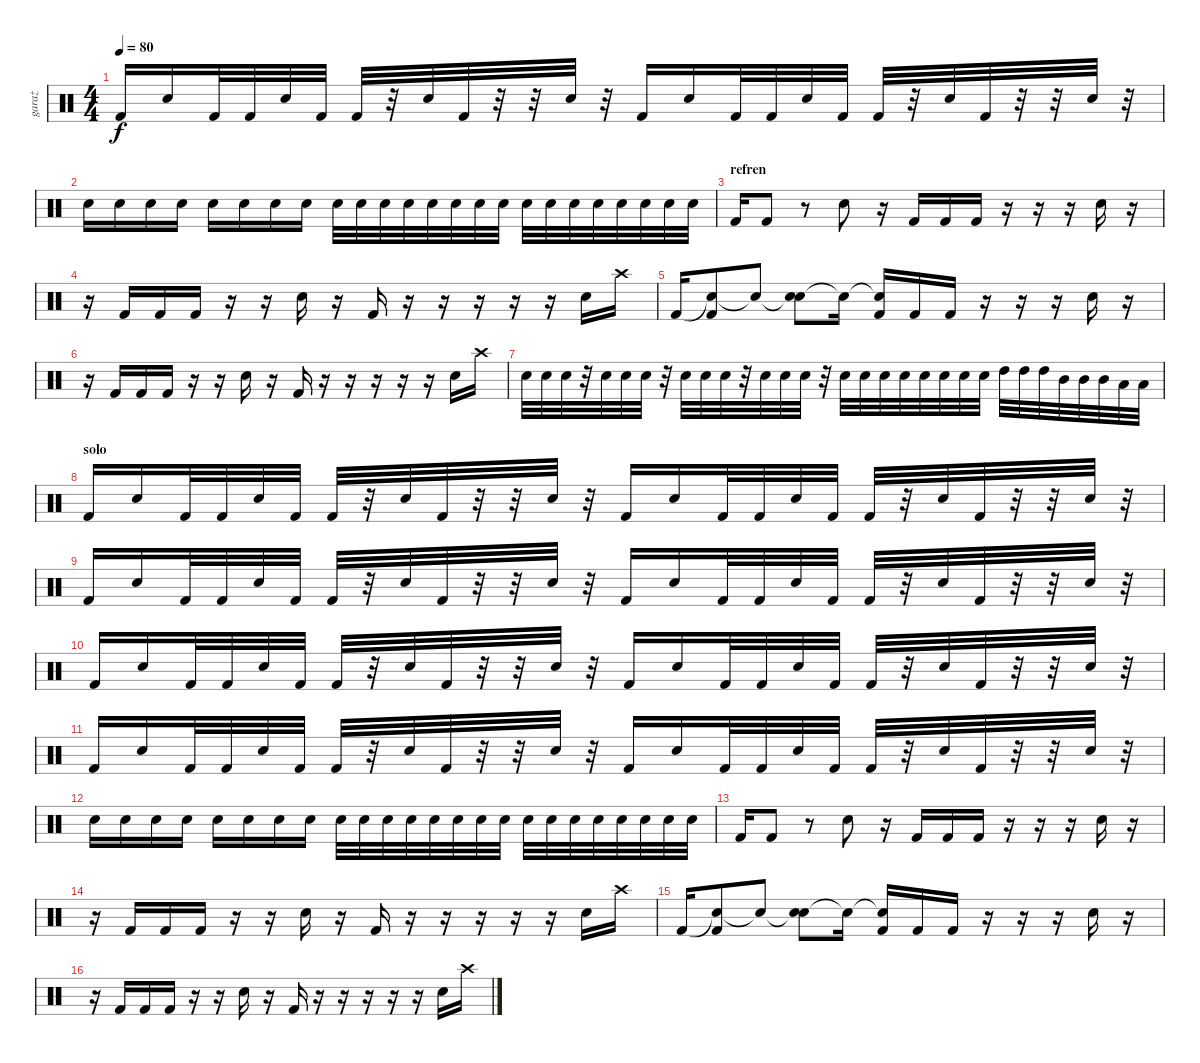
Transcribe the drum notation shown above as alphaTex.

\track ("garaż" "garaż") {instrument percussion}
\staff {score}
\articulation defaults
\ts (4 4)
\tempo 80
\clef neutral
\ks c "Kick (hit) 2".16{dy f} "Snare (hit) 2".16 "Kick (hit) 2".32 "Kick (hit) 2".32 "Snare (hit) 2".32 "Kick (hit) 2".32 "Kick (hit) 2".32
r.32 "Snare (hit) 2".32 "Kick (hit) 2".32 r.32 r.32 "Snare (hit) 2".32 r.32 "Kick (hit) 2".16 "Snare (hit) 2".16 "Kick (hit) 2".32 "Kick (hit) 2".32 "Snare (hit) 2".32 "Kick (hit) 2".32 "Kick (hit) 2".32 r.32 "Snare (hit) 2".32 "Kick (hit) 2".32 r.32 r.32 "Snare (hit) 2".32 r.32 |
"Snare (hit) 2".16 "Snare (hit) 2".16 "Snare (hit) 2".16 "Snare (hit) 2".16 "Snare (hit) 2".16 "Snare (hit) 2".16 "Snare (hit) 2".16 "Snare (hit) 2".16 "Snare (hit) 2".32 "Snare (hit) 2".32 "Snare (hit) 2".32 "Snare (hit) 2".32 "Snare (hit) 2".32 "Snare (hit) 2".32 "Snare (hit) 2".32 "Snare (hit) 2".32 "Snare (hit) 2".32 "Snare (hit) 2".32 "Snare (hit) 2".32 "Snare (hit) 2".32 "Snare (hit) 2".32 "Snare (hit) 2".32 "Snare (hit) 2".32 "Snare (hit) 2".32 |
\section ("" "refren")
"Kick (hit) 2".16 "Kick (hit) 2".8 r.8 "Snare (hit) 2".8 r.16 "Kick (hit) 2".16 "Kick (hit) 2".16 "Kick (hit) 2".16 r.16 r.16 r.16 "Snare (hit) 2".16 r.16 |
r.16 "Kick (hit) 2".16 "Kick (hit) 2".16 "Kick (hit) 2".16 r.16 r.16 "Snare (hit) 2".16 r.16 "Kick (hit) 2".16 r.16 r.16 r.16 r.16 r.16 "Snare (hit) 2".16 "Crash high (hit)".16 |
"Kick (hit) 2".16 ("Snare (hit)"{t} "Kick (hit) 2").8 "Snare (hit)"{t}.8 ("Snare (hit)"{t} "Snare (hit) 2").8 "Snare (hit)"{t}.16 ("Snare (hit)"{t} "Kick (hit) 2").16 "Kick (hit) 2".16 "Kick (hit) 2".16 r.16 r.16 r.16 "Snare (hit) 2".16 r.16 |
r.16 "Kick (hit) 2".16 "Kick (hit) 2".16 "Kick (hit) 2".16 r.16 r.16 "Snare (hit) 2".16 r.16 "Kick (hit) 2".16 r.16 r.16 r.16 r.16 r.16 "Snare (hit) 2".16 "Crash high (hit)".16 |
"Snare (hit) 2".32 "Snare (hit) 2".32 "Snare (hit) 2".32 r.32 "Snare (hit) 2".32 "Snare (hit) 2".32 "Snare (hit) 2".32 r.32 "Snare (hit) 2".32 "Snare (hit) 2".32 "Snare (hit) 2".32 r.32 "Snare (hit) 2".32 "Snare (hit) 2".32 "Snare (hit) 2".32 r.32 "Snare (hit) 2".32 "Snare (hit) 2".32 "Snare (hit) 2".32 "Snare (hit) 2".32 "Snare (hit) 2".32 "Snare (hit) 2".32 "Snare (hit) 2".32 "Snare (hit) 2".32 "High Tom (hit)".32 "High Tom (hit)".32 "High Tom (hit)".32 "Mid Tom (hit)".32 "Mid Tom (hit)".32 "Mid Tom (hit)".32 "Low Tom (hit)".32 "Low Tom (hit)".32 |
\section ("" "solo")
"Kick (hit) 2".16 "Snare (hit) 2".16 "Kick (hit) 2".32 "Kick (hit) 2".32 "Snare (hit) 2".32 "Kick (hit) 2".32 "Kick (hit) 2".32 r.32 "Snare (hit) 2".32 "Kick (hit) 2".32 r.32 r.32 "Snare (hit) 2".32 r.32 "Kick (hit) 2".16 "Snare (hit) 2".16 "Kick (hit) 2".32 "Kick (hit) 2".32 "Snare (hit) 2".32 "Kick (hit) 2".32 "Kick (hit) 2".32 r.32 "Snare (hit) 2".32 "Kick (hit) 2".32 r.32 r.32 "Snare (hit) 2".32 r.32 |
"Kick (hit) 2".16 "Snare (hit) 2".16 "Kick (hit) 2".32 "Kick (hit) 2".32 "Snare (hit) 2".32 "Kick (hit) 2".32 "Kick (hit) 2".32 r.32 "Snare (hit) 2".32 "Kick (hit) 2".32 r.32 r.32 "Snare (hit) 2".32 r.32 "Kick (hit) 2".16 "Snare (hit) 2".16 "Kick (hit) 2".32 "Kick (hit) 2".32 "Snare (hit) 2".32 "Kick (hit) 2".32 "Kick (hit) 2".32 r.32 "Snare (hit) 2".32 "Kick (hit) 2".32 r.32 r.32 "Snare (hit) 2".32 r.32 |
"Kick (hit) 2".16 "Snare (hit) 2".16 "Kick (hit) 2".32 "Kick (hit) 2".32 "Snare (hit) 2".32 "Kick (hit) 2".32 "Kick (hit) 2".32 r.32 "Snare (hit) 2".32 "Kick (hit) 2".32 r.32 r.32 "Snare (hit) 2".32 r.32 "Kick (hit) 2".16 "Snare (hit) 2".16 "Kick (hit) 2".32 "Kick (hit) 2".32 "Snare (hit) 2".32 "Kick (hit) 2".32 "Kick (hit) 2".32 r.32 "Snare (hit) 2".32 "Kick (hit) 2".32 r.32 r.32 "Snare (hit) 2".32 r.32 |
"Kick (hit) 2".16 "Snare (hit) 2".16 "Kick (hit) 2".32 "Kick (hit) 2".32 "Snare (hit) 2".32 "Kick (hit) 2".32 "Kick (hit) 2".32 r.32 "Snare (hit) 2".32 "Kick (hit) 2".32 r.32 r.32 "Snare (hit) 2".32 r.32 "Kick (hit) 2".16 "Snare (hit) 2".16 "Kick (hit) 2".32 "Kick (hit) 2".32 "Snare (hit) 2".32 "Kick (hit) 2".32 "Kick (hit) 2".32 r.32 "Snare (hit) 2".32 "Kick (hit) 2".32 r.32 r.32 "Snare (hit) 2".32 r.32 |
"Snare (hit) 2".16 "Snare (hit) 2".16 "Snare (hit) 2".16 "Snare (hit) 2".16 "Snare (hit) 2".16 "Snare (hit) 2".16 "Snare (hit) 2".16 "Snare (hit) 2".16 "Snare (hit) 2".32 "Snare (hit) 2".32 "Snare (hit) 2".32 "Snare (hit) 2".32 "Snare (hit) 2".32 "Snare (hit) 2".32 "Snare (hit) 2".32 "Snare (hit) 2".32 "Snare (hit) 2".32 "Snare (hit) 2".32 "Snare (hit) 2".32 "Snare (hit) 2".32 "Snare (hit) 2".32 "Snare (hit) 2".32 "Snare (hit) 2".32 "Snare (hit) 2".32 |
"Kick (hit) 2".16 "Kick (hit) 2".8 r.8 "Snare (hit) 2".8 r.16 "Kick (hit) 2".16 "Kick (hit) 2".16 "Kick (hit) 2".16 r.16 r.16 r.16 "Snare (hit) 2".16 r.16 |
r.16 "Kick (hit) 2".16 "Kick (hit) 2".16 "Kick (hit) 2".16 r.16 r.16 "Snare (hit) 2".16 r.16 "Kick (hit) 2".16 r.16 r.16 r.16 r.16 r.16 "Snare (hit) 2".16 "Crash high (hit)".16 |
"Kick (hit) 2".16 ("Snare (hit)"{t} "Kick (hit) 2").8 "Snare (hit)"{t}.8 ("Snare (hit)"{t} "Snare (hit) 2").8 "Snare (hit)"{t}.16 ("Snare (hit)"{t} "Kick (hit) 2").16 "Kick (hit) 2".16 "Kick (hit) 2".16 r.16 r.16 r.16 "Snare (hit) 2".16 r.16 |
r.16 "Kick (hit) 2".16 "Kick (hit) 2".16 "Kick (hit) 2".16 r.16 r.16 "Snare (hit) 2".16 r.16 "Kick (hit) 2".16 r.16 r.16 r.16 r.16 r.16 "Snare (hit) 2".16 "Crash high (hit)".16
